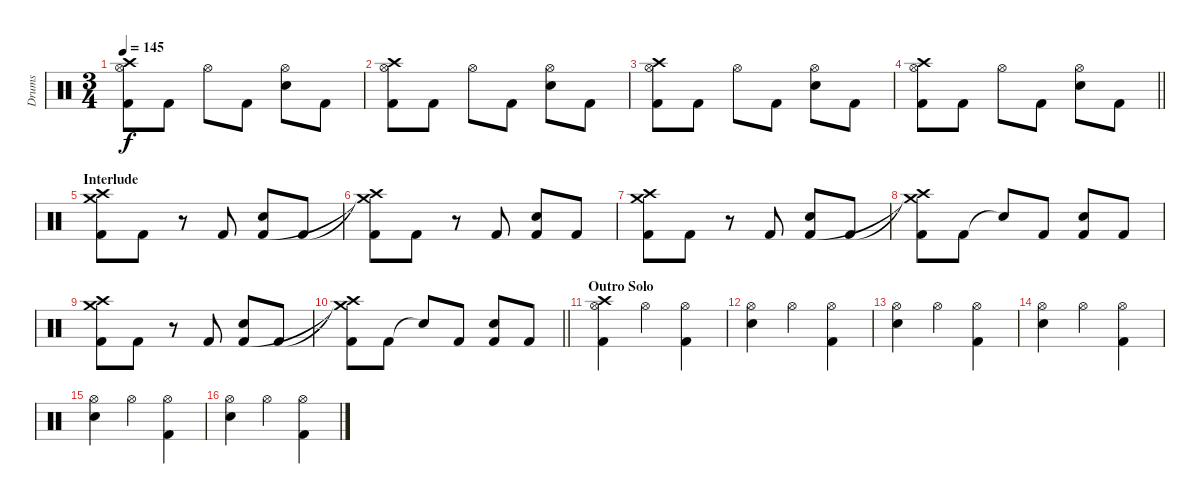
\track ("Drums" "Drums") {instrument percussion}
\staff {score}
\articulation defaults
\ts (3 4)
\tempo 145
\clef neutral
\ks c
("Hi-Hat (open)" "Crash high (hit)" "Kick (hit) 2").8{dy f} "Kick (hit) 2".8 "Hi-Hat (open)".8 "Kick (hit) 2".8 ("Hi-Hat (open)" "Electric Snare (hit)").8 "Kick (hit) 2".8 |
("Hi-Hat (open)" "Crash high (hit)" "Kick (hit) 2").8 "Kick (hit) 2".8 "Hi-Hat (open)".8 "Kick (hit) 2".8 ("Hi-Hat (open)" "Electric Snare (hit)").8 "Kick (hit) 2".8 |
("Hi-Hat (open)" "Crash high (hit)" "Kick (hit) 2").8 "Kick (hit) 2".8 "Hi-Hat (open)".8 "Kick (hit) 2".8 ("Hi-Hat (open)" "Electric Snare (hit)").8 "Kick (hit) 2".8 |
\barLineRight lightlight
("Hi-Hat (open)" "Crash high (hit)" "Kick (hit) 2").8 "Kick (hit) 2".8 "Hi-Hat (open)".8 "Kick (hit) 2".8 ("Hi-Hat (open)" "Electric Snare (hit)").8 "Kick (hit) 2".8 |
\section ("" "Interlude")
("Crash high (hit)" "Crash medium (hit)" "Kick (hit) 2").8 "Kick (hit) 2".8 r.8 "Kick (hit) 2".8 ("Electric Snare (hit)" "Kick (hit) 2").8 "Kick (hit) 2".8 |
("Crash high (hit)"{t} "Crash medium (hit)"{t} "Kick (hit) 2").8 "Kick (hit) 2".8 r.8 "Kick (hit) 2".8 ("Electric Snare (hit)" "Kick (hit) 2").8 "Kick (hit) 2".8 |
("Crash high (hit)" "Crash medium (hit)" "Kick (hit) 2").8 "Kick (hit) 2".8 r.8 "Kick (hit) 2".8 ("Electric Snare (hit)" "Kick (hit) 2").8 "Kick (hit) 2".8 |
("Crash high (hit)"{t} "Crash medium (hit)"{t} "Kick (hit) 2").8 "Kick (hit) 2".8 "Snare (hit)"{t}.8 "Kick (hit) 2".8 ("Electric Snare (hit)" "Kick (hit) 2").8 "Kick (hit) 2".8 |
("Crash high (hit)" "Crash medium (hit)" "Kick (hit) 2").8 "Kick (hit) 2".8 r.8 "Kick (hit) 2".8 ("Electric Snare (hit)" "Kick (hit) 2").8 "Kick (hit) 2".8 |
\barLineRight lightlight
("Crash high (hit)"{t} "Crash medium (hit)"{t} "Kick (hit) 2").8 "Kick (hit) 2".8 "Snare (hit)"{t}.8 "Kick (hit) 2".8 ("Electric Snare (hit)" "Kick (hit) 2").8 "Kick (hit) 2".8 |
\section ("" "Outro Solo")
("Hi-Hat (open)" "Crash high (hit)" "Kick (hit) 2").4 "Hi-Hat (open)".4 ("Hi-Hat (open)" "Kick (hit) 2").4 |
("Hi-Hat (open)" "Electric Snare (hit)").4 "Hi-Hat (open)".4 ("Hi-Hat (open)" "Kick (hit) 2").4 |
("Hi-Hat (open)" "Electric Snare (hit)").4 "Hi-Hat (open)".4 ("Hi-Hat (open)" "Kick (hit) 2").4 |
("Hi-Hat (open)" "Electric Snare (hit)").4 "Hi-Hat (open)".4 ("Hi-Hat (open)" "Kick (hit) 2").4 |
("Hi-Hat (open)" "Electric Snare (hit)").4 "Hi-Hat (open)".4 ("Hi-Hat (open)" "Kick (hit) 2").4 |
("Hi-Hat (open)" "Electric Snare (hit)").4 "Hi-Hat (open)".4 ("Hi-Hat (open)" "Kick (hit) 2").4
